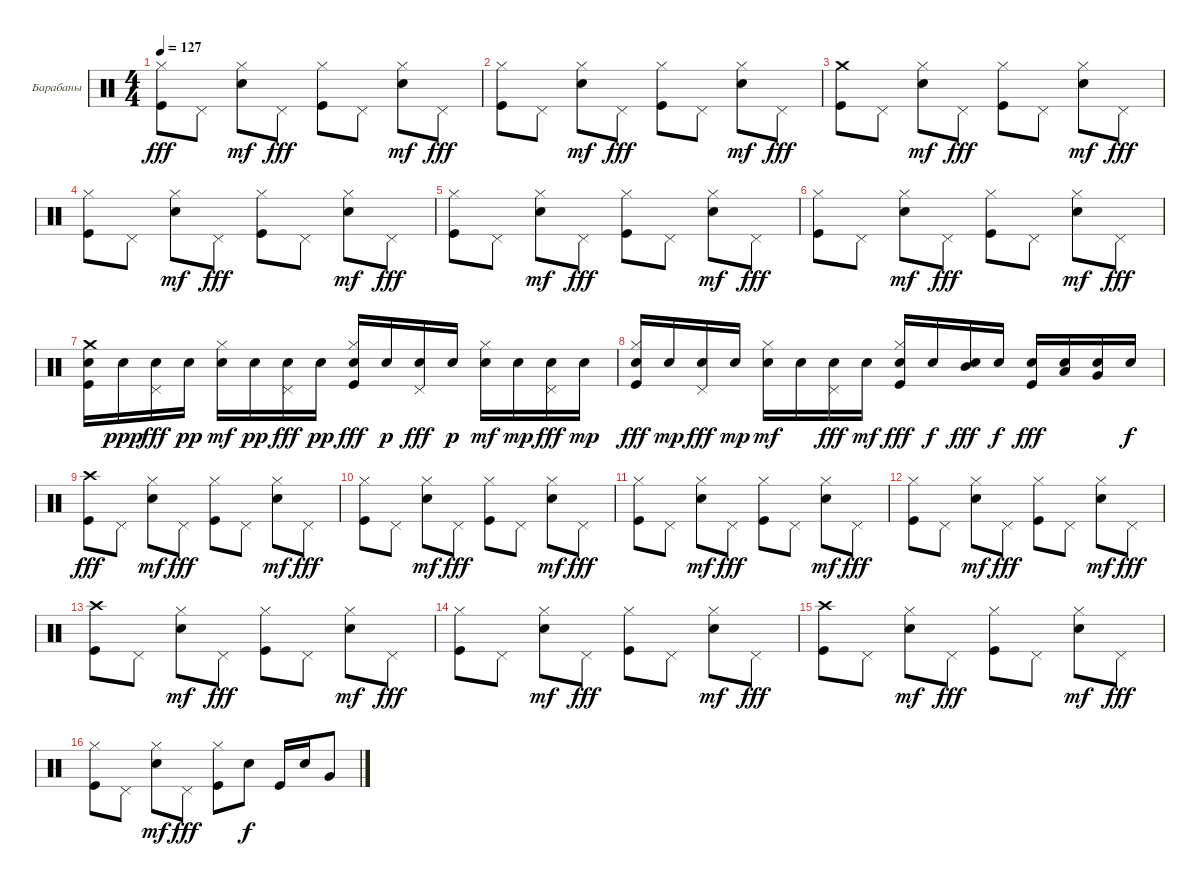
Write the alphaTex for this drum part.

\bracketExtendMode groupsimilarinstruments
\firstSystemTrackNameOrientation horizontal
\otherSystemsTrackNameOrientation horizontal
\track ("Ударные" "Барабаны") {instrument percussion}
\staff {score}
\articulation defaults
\ts (4 4)
\tempo 127
\clef neutral
\ks c
("Kick (hit)" "Hi-Hat (closed)").8{dy fff} "Pedal Hi-Hat (hit)".8 ("Hi-Hat (closed)" "Snare (hit) 2").8{dy mf} "Pedal Hi-Hat (hit)".8{dy fff} ("Kick (hit)" "Hi-Hat (closed)").8 "Pedal Hi-Hat (hit)".8 ("Hi-Hat (closed)" "Snare (hit) 2").8{dy mf} "Pedal Hi-Hat (hit)".8{dy fff} |
("Kick (hit)" "Hi-Hat (closed)").8 "Pedal Hi-Hat (hit)".8 ("Hi-Hat (closed)" "Snare (hit) 2").8{dy mf} "Pedal Hi-Hat (hit)".8{dy fff} ("Kick (hit)" "Hi-Hat (closed)").8 "Pedal Hi-Hat (hit)".8 ("Hi-Hat (closed)" "Snare (hit) 2").8{dy mf} "Pedal Hi-Hat (hit)".8{dy fff} |
("Kick (hit)" "Crash medium (hit)").8 "Pedal Hi-Hat (hit)".8 ("Hi-Hat (closed)" "Snare (hit) 2").8{dy mf} "Pedal Hi-Hat (hit)".8{dy fff} ("Kick (hit)" "Hi-Hat (closed)").8 "Pedal Hi-Hat (hit)".8 ("Hi-Hat (closed)" "Snare (hit) 2").8{dy mf} "Pedal Hi-Hat (hit)".8{dy fff} |
("Kick (hit)" "Hi-Hat (closed)").8 "Pedal Hi-Hat (hit)".8 ("Hi-Hat (closed)" "Snare (hit) 2").8{dy mf} "Pedal Hi-Hat (hit)".8{dy fff} ("Kick (hit)" "Hi-Hat (closed)").8 "Pedal Hi-Hat (hit)".8 ("Hi-Hat (closed)" "Snare (hit) 2").8{dy mf} "Pedal Hi-Hat (hit)".8{dy fff} |
("Kick (hit)" "Hi-Hat (closed)").8 "Pedal Hi-Hat (hit)".8 ("Hi-Hat (closed)" "Snare (hit) 2").8{dy mf} "Pedal Hi-Hat (hit)".8{dy fff} ("Kick (hit)" "Hi-Hat (closed)").8 "Pedal Hi-Hat (hit)".8 ("Hi-Hat (closed)" "Snare (hit) 2").8{dy mf} "Pedal Hi-Hat (hit)".8{dy fff} |
("Kick (hit)" "Hi-Hat (closed)").8 "Pedal Hi-Hat (hit)".8 ("Hi-Hat (closed)" "Snare (hit) 2").8{dy mf} "Pedal Hi-Hat (hit)".8{dy fff} ("Kick (hit)" "Hi-Hat (closed)").8 "Pedal Hi-Hat (hit)".8 ("Hi-Hat (closed)" "Snare (hit) 2").8{dy mf} "Pedal Hi-Hat (hit)".8{dy fff} |
("Kick (hit)" "Crash medium (hit)" "Snare (hit) 2").16 "Snare (hit) 2".16{dy ppp} ("Pedal Hi-Hat (hit)" "Snare (hit) 2").16{dy fff} "Snare (hit) 2".16{dy pp} ("Hi-Hat (closed)" "Snare (hit) 2").16{dy mf} "Snare (hit) 2".16{dy pp} ("Pedal Hi-Hat (hit)" "Snare (hit) 2").16{dy fff} "Snare (hit) 2".16{dy pp} ("Kick (hit)" "Hi-Hat (closed)" "Snare (hit) 2").16{dy fff} "Snare (hit) 2".16{dy p} ("Pedal Hi-Hat (hit)" "Snare (hit) 2").16{dy fff} "Snare (hit) 2".16{dy p} ("Hi-Hat (closed)" "Snare (hit) 2").16{dy mf} "Snare (hit) 2".16{dy mp} ("Pedal Hi-Hat (hit)" "Snare (hit) 2").16{dy fff} "Snare (hit) 2".16{dy mp} |
("Kick (hit)" "Hi-Hat (closed)" "Snare (hit) 2").16{dy fff} "Snare (hit) 2".16{dy mp} ("Pedal Hi-Hat (hit)" "Snare (hit) 2").16{dy fff} "Snare (hit) 2".16{dy mp} ("Hi-Hat (closed)" "Snare (hit) 2").16{dy mf} "Snare (hit) 2".16 ("Pedal Hi-Hat (hit)" "Snare (hit) 2").16{dy fff} "Snare (hit) 2".16{dy mf} ("Kick (hit)" "Hi-Hat (closed)" "Snare (hit) 2").16{dy fff} "Snare (hit) 2".16{dy f} ("Mid Tom (hit)" "Snare (hit) 2").16{dy fff} "Snare (hit) 2".16{dy f} ("Kick (hit)" "Snare (hit) 2").16{dy fff} ("Low Tom (hit)" "Snare (hit) 2").16 ("Very Low Tom (hit)" "Snare (hit) 2").16 "Snare (hit) 2".16{dy f} |
("Kick (hit)" "Crash high (hit)").8{dy fff} "Pedal Hi-Hat (hit)".8 ("Hi-Hat (closed)" "Snare (hit) 2").8{dy mf} "Pedal Hi-Hat (hit)".8{dy fff} ("Kick (hit)" "Hi-Hat (closed)").8 "Pedal Hi-Hat (hit)".8 ("Hi-Hat (closed)" "Snare (hit) 2").8{dy mf} "Pedal Hi-Hat (hit)".8{dy fff} |
("Kick (hit)" "Hi-Hat (closed)").8 "Pedal Hi-Hat (hit)".8 ("Hi-Hat (closed)" "Snare (hit) 2").8{dy mf} "Pedal Hi-Hat (hit)".8{dy fff} ("Kick (hit)" "Hi-Hat (closed)").8 "Pedal Hi-Hat (hit)".8 ("Hi-Hat (closed)" "Snare (hit) 2").8{dy mf} "Pedal Hi-Hat (hit)".8{dy fff} |
("Kick (hit)" "Hi-Hat (closed)").8 "Pedal Hi-Hat (hit)".8 ("Hi-Hat (closed)" "Snare (hit) 2").8{dy mf} "Pedal Hi-Hat (hit)".8{dy fff} ("Kick (hit)" "Hi-Hat (closed)").8 "Pedal Hi-Hat (hit)".8 ("Hi-Hat (closed)" "Snare (hit) 2").8{dy mf} "Pedal Hi-Hat (hit)".8{dy fff} |
("Kick (hit)" "Hi-Hat (closed)").8 "Pedal Hi-Hat (hit)".8 ("Hi-Hat (closed)" "Snare (hit) 2").8{dy mf} "Pedal Hi-Hat (hit)".8{dy fff} ("Kick (hit)" "Hi-Hat (closed)").8 "Pedal Hi-Hat (hit)".8 ("Hi-Hat (closed)" "Snare (hit) 2").8{dy mf} "Pedal Hi-Hat (hit)".8{dy fff} |
("Kick (hit)" "Crash high (hit)").8 "Pedal Hi-Hat (hit)".8 ("Hi-Hat (closed)" "Snare (hit) 2").8{dy mf} "Pedal Hi-Hat (hit)".8{dy fff} ("Kick (hit)" "Hi-Hat (closed)").8 "Pedal Hi-Hat (hit)".8 ("Hi-Hat (closed)" "Snare (hit) 2").8{dy mf} "Pedal Hi-Hat (hit)".8{dy fff} |
("Kick (hit)" "Hi-Hat (closed)").8 "Pedal Hi-Hat (hit)".8 ("Hi-Hat (closed)" "Snare (hit) 2").8{dy mf} "Pedal Hi-Hat (hit)".8{dy fff} ("Kick (hit)" "Hi-Hat (closed)").8 "Pedal Hi-Hat (hit)".8 ("Hi-Hat (closed)" "Snare (hit) 2").8{dy mf} "Pedal Hi-Hat (hit)".8{dy fff} |
("Kick (hit)" "Crash high (hit)").8 "Pedal Hi-Hat (hit)".8 ("Hi-Hat (closed)" "Snare (hit) 2").8{dy mf} "Pedal Hi-Hat (hit)".8{dy fff} ("Kick (hit)" "Hi-Hat (closed)").8 "Pedal Hi-Hat (hit)".8 ("Hi-Hat (closed)" "Snare (hit) 2").8{dy mf} "Pedal Hi-Hat (hit)".8{dy fff} |
("Kick (hit)" "Hi-Hat (closed)").8 "Pedal Hi-Hat (hit)".8 ("Hi-Hat (closed)" "Snare (hit) 2").8{dy mf} "Pedal Hi-Hat (hit)".8{dy fff} ("Kick (hit)" "Hi-Hat (closed)").8 "Snare (hit) 2".8{dy f} "Kick (hit)".16 "Snare (hit) 2".16 "Very Low Tom (hit)".8
